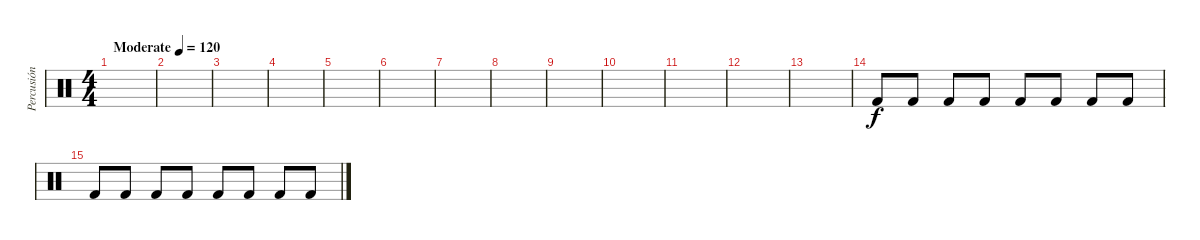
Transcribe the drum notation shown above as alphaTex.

\track ("Percusión" "Percusión") {instrument percussion}
\staff {score}
\articulation defaults
\ts (4 4)
\tempo (120 "Moderate")
\clef neutral
\ks c
|
|
|
|
|
|
|
|
|
|
|
|
|
"Kick (hit) 2".8{volume 3} "Kick (hit) 2".8 "Kick (hit) 2".8 "Kick (hit) 2".8 "Kick (hit) 2".8 "Kick (hit) 2".8 "Kick (hit) 2".8 "Kick (hit) 2".8 |
"Kick (hit) 2".8 "Kick (hit) 2".8 "Kick (hit) 2".8 "Kick (hit) 2".8 "Kick (hit) 2".8 "Kick (hit) 2".8 "Kick (hit) 2".8 "Kick (hit) 2".8
